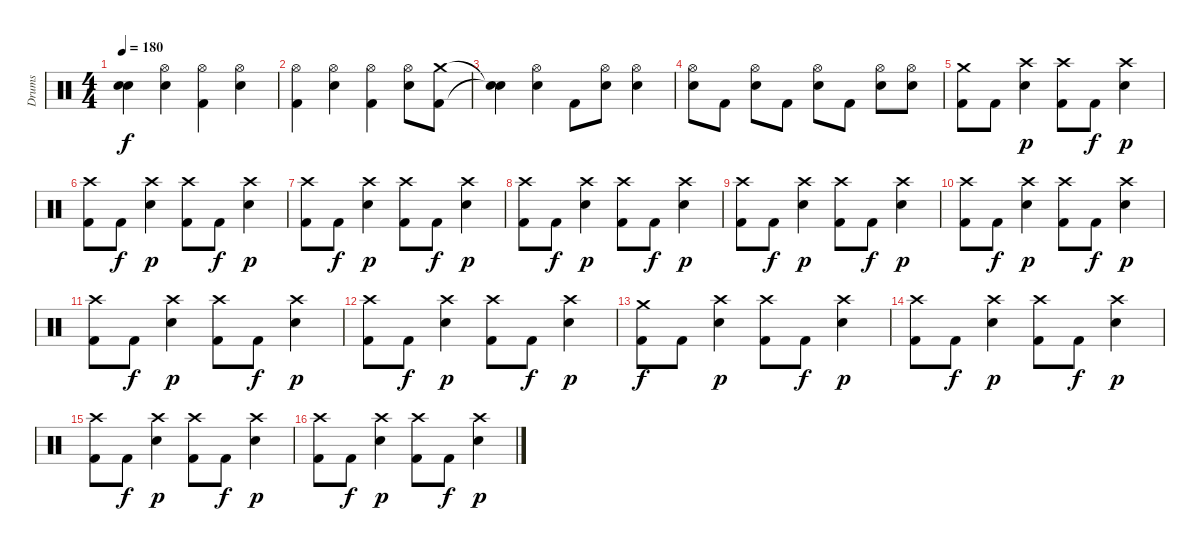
\track ("Drums" "Drums") {instrument percussion}
\staff {score}
\articulation defaults
\ts (4 4)
\tempo 180
\clef neutral
\ks c
("Snare (hit)"{t} "Snare (hit)"{t}).4{dy f} ("Hi-Hat (open)" "Electric Snare (hit)").4 ("Hi-Hat (open)" "Kick (hit) 2").4 ("Hi-Hat (open)" "Electric Snare (hit)").4 |
("Hi-Hat (open)" "Kick (hit) 2").4 ("Hi-Hat (open)" "Electric Snare (hit)").4 ("Hi-Hat (open)" "Kick (hit) 2").4 ("Hi-Hat (open)" "Electric Snare (hit)").8 ("Crash medium (hit)" "Kick (hit) 2").8 |
("Snare (hit)"{t} "Snare (hit)"{t}).4 ("Hi-Hat (open)" "Electric Snare (hit)").4 "Kick (hit) 2".8 ("Hi-Hat (open)" "Electric Snare (hit)").8 ("Hi-Hat (open)" "Electric Snare (hit)").4 |
("Hi-Hat (open)" "Electric Snare (hit)").8 "Kick (hit) 2".8 ("Hi-Hat (open)" "Electric Snare (hit)").8 "Kick (hit) 2".8 ("Hi-Hat (open)" "Electric Snare (hit)").8 "Kick (hit) 2".8 ("Hi-Hat (open)" "Electric Snare (hit)").8 ("Hi-Hat (open)" "Electric Snare (hit)").8 |
("Crash medium (hit)" "Kick (hit) 2").8 "Kick (hit) 2".8 ("Crash high (hit)" "Electric Snare (hit)").4{dy p} ("Crash high (hit)" "Kick (hit) 2").8 "Kick (hit) 2".8{dy f} ("Crash high (hit)" "Electric Snare (hit)").4{dy p} |
("Crash high (hit)" "Kick (hit) 2").8 "Kick (hit) 2".8{dy f} ("Crash high (hit)" "Electric Snare (hit)").4{dy p} ("Crash high (hit)" "Kick (hit) 2").8 "Kick (hit) 2".8{dy f} ("Crash high (hit)" "Electric Snare (hit)").4{dy p} |
("Crash high (hit)" "Kick (hit) 2").8 "Kick (hit) 2".8{dy f} ("Crash high (hit)" "Electric Snare (hit)").4{dy p} ("Crash high (hit)" "Kick (hit) 2").8 "Kick (hit) 2".8{dy f} ("Crash high (hit)" "Electric Snare (hit)").4{dy p} |
("Crash high (hit)" "Kick (hit) 2").8 "Kick (hit) 2".8{dy f} ("Crash high (hit)" "Electric Snare (hit)").4{dy p} ("Crash high (hit)" "Kick (hit) 2").8 "Kick (hit) 2".8{dy f} ("Crash high (hit)" "Electric Snare (hit)").4{dy p} |
("Crash high (hit)" "Kick (hit) 2").8 "Kick (hit) 2".8{dy f} ("Crash high (hit)" "Electric Snare (hit)").4{dy p} ("Crash high (hit)" "Kick (hit) 2").8 "Kick (hit) 2".8{dy f} ("Crash high (hit)" "Electric Snare (hit)").4{dy p} |
("Crash high (hit)" "Kick (hit) 2").8 "Kick (hit) 2".8{dy f} ("Crash high (hit)" "Electric Snare (hit)").4{dy p} ("Crash high (hit)" "Kick (hit) 2").8 "Kick (hit) 2".8{dy f} ("Crash high (hit)" "Electric Snare (hit)").4{dy p} |
("Crash high (hit)" "Kick (hit) 2").8 "Kick (hit) 2".8{dy f} ("Crash high (hit)" "Electric Snare (hit)").4{dy p} ("Crash high (hit)" "Kick (hit) 2").8 "Kick (hit) 2".8{dy f} ("Crash high (hit)" "Electric Snare (hit)").4{dy p} |
("Crash high (hit)" "Kick (hit) 2").8 "Kick (hit) 2".8{dy f} ("Crash high (hit)" "Electric Snare (hit)").4{dy p} ("Crash high (hit)" "Kick (hit) 2").8 "Kick (hit) 2".8{dy f} ("Crash high (hit)" "Electric Snare (hit)").4{dy p} |
("Crash medium (hit)" "Kick (hit) 2").8{dy f} "Kick (hit) 2".8 ("Crash high (hit)" "Electric Snare (hit)").4{dy p} ("Crash high (hit)" "Kick (hit) 2").8 "Kick (hit) 2".8{dy f} ("Crash high (hit)" "Electric Snare (hit)").4{dy p} |
("Crash high (hit)" "Kick (hit) 2").8 "Kick (hit) 2".8{dy f} ("Crash high (hit)" "Electric Snare (hit)").4{dy p} ("Crash high (hit)" "Kick (hit) 2").8 "Kick (hit) 2".8{dy f} ("Crash high (hit)" "Electric Snare (hit)").4{dy p} |
("Crash high (hit)" "Kick (hit) 2").8 "Kick (hit) 2".8{dy f} ("Crash high (hit)" "Electric Snare (hit)").4{dy p} ("Crash high (hit)" "Kick (hit) 2").8 "Kick (hit) 2".8{dy f} ("Crash high (hit)" "Electric Snare (hit)").4{dy p} |
("Crash high (hit)" "Kick (hit) 2").8 "Kick (hit) 2".8{dy f} ("Crash high (hit)" "Electric Snare (hit)").4{dy p} ("Crash high (hit)" "Kick (hit) 2").8 "Kick (hit) 2".8{dy f} ("Crash high (hit)" "Electric Snare (hit)").4{dy p}
